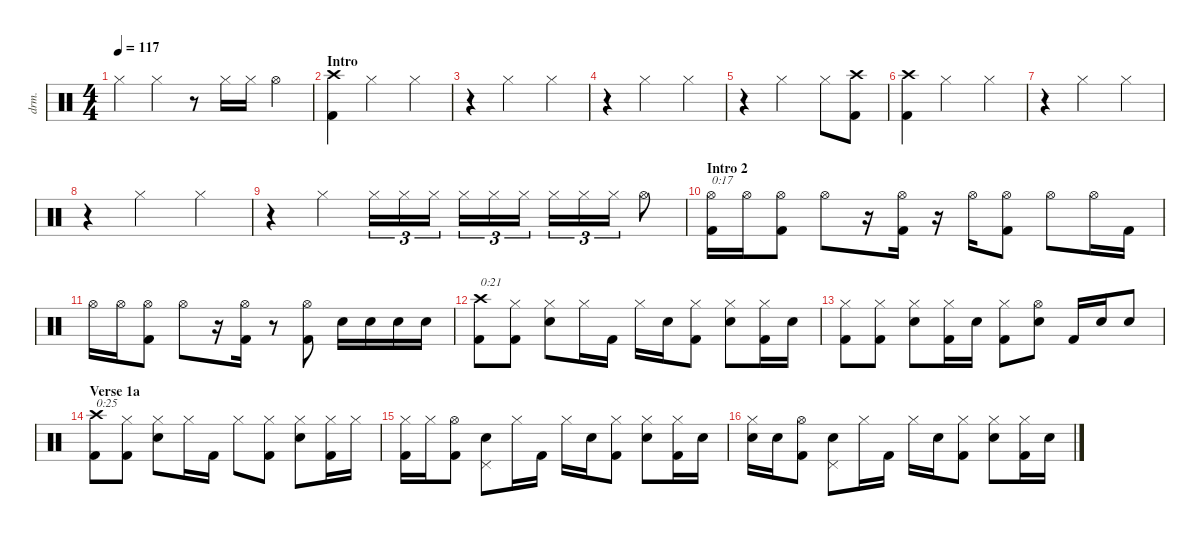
\defaultSystemsLayout 4
\hideDynamics
\bracketExtendMode nobrackets
\otherSystemsTrackNameOrientation horizontal
\track ("Drums" "drm.") {instrument percussion}
\staff {score}
\articulation defaults
\ts (4 4)
\beaming (8 2 2 2 2)
\tempo 117
\clef neutral
\ks c "Hi-Hat (closed)".4{dy f} "Hi-Hat (closed)".4
r.8 "Hi-Hat (closed)".16 "Hi-Hat (closed)".16 "Hi-Hat (open)".4 |
\section ("" "Intro")
("Crash high (hit)" "Kick (hit) 2").4 "Hi-Hat (closed)".2 "Hi-Hat (closed)".4 |
r.4 "Hi-Hat (closed)".2 "Hi-Hat (closed)".4 |
r.4 "Hi-Hat (closed)".2 "Hi-Hat (closed)".4 |
r.4 "Hi-Hat (closed)".2 "Hi-Hat (closed)".8 ("Crash high (hit)" "Kick (hit) 2").8 |
("Crash high (hit)" "Kick (hit) 2").4 "Hi-Hat (closed)".2 "Hi-Hat (closed)".4 |
r.4 "Hi-Hat (closed)".2 "Hi-Hat (closed)".4 |
r.4 "Hi-Hat (closed)".2 "Hi-Hat (closed)".4 |
r.4 "Hi-Hat (closed)".4 "Hi-Hat (closed)".16{tu (3 2)} "Hi-Hat (closed)".16{tu (3 2)} "Hi-Hat (closed)".16{tu (3 2)} "Hi-Hat (closed)".16{tu (3 2)} "Hi-Hat (closed)".16{tu (3 2)} "Hi-Hat (closed)".16{tu (3 2)} "Hi-Hat (closed)".16{tu (3 2)} "Hi-Hat (closed)".16{tu (3 2)} "Hi-Hat (closed)".16{tu (3 2)} "Hi-Hat (open)".8 |
\section ("" "Intro 2")
("Kick (hit) 2" "Hi-Hat (open)").16{txt "0:17"} "Hi-Hat (open)".16 ("Kick (hit) 2" "Hi-Hat (open)").8 "Hi-Hat (open)".8 r.16 ("Kick (hit) 2" "Hi-Hat (open)").16 r.16 "Hi-Hat (open)".16 ("Kick (hit) 2" "Hi-Hat (open)").8 "Hi-Hat (open)".8 "Hi-Hat (open)".16 "Kick (hit) 2".16 |
"Hi-Hat (open)".16 "Hi-Hat (open)".16 ("Kick (hit) 2" "Hi-Hat (open)").8 "Hi-Hat (open)".8 r.16 ("Kick (hit) 2" "Hi-Hat (open)").16 r.8 ("Kick (hit) 2" "Hi-Hat (open)").8 "Snare (hit) 2".16 "Snare (hit) 2".16 "Snare (hit) 2".16 "Snare (hit) 2".16 |
("Kick (hit) 2" "Crash high (hit)").8{txt "0:21"} ("Kick (hit) 2" "Hi-Hat (closed)").8 ("Snare (hit) 2" "Hi-Hat (closed)").8 "Hi-Hat (closed)".16 "Kick (hit) 2".16 "Hi-Hat (closed)".16 "Snare (hit) 2".16{dy mp} ("Kick (hit) 2" "Hi-Hat (closed)").8{dy f} ("Snare (hit) 2" "Hi-Hat (closed)").8 ("Kick (hit) 2" "Hi-Hat (closed)").16 "Snare (hit) 2".16{dy mp} |
("Kick (hit) 2" "Hi-Hat (closed)").8 ("Kick (hit) 2" "Hi-Hat (closed)").8{dy f} ("Snare (hit) 2" "Hi-Hat (closed)").8 ("Kick (hit) 2" "Hi-Hat (closed)").16 "Snare (hit) 2".16 ("Kick (hit) 2" "Hi-Hat (closed)").8 ("Snare (hit) 2" "Hi-Hat (open)").8 "Kick (hit) 2".16 "Snare (hit) 2".16 "Snare (hit) 2".8 |
\section ("" "Verse 1a")
("Kick (hit) 2" "Crash high (hit)").8{txt "0:25"} ("Kick (hit) 2" "Hi-Hat (closed)").8 ("Snare (hit) 2" "Hi-Hat (closed)").8 "Hi-Hat (closed)".16 "Kick (hit) 2".16 "Hi-Hat (closed)".8 ("Kick (hit) 2" "Hi-Hat (closed)").8 ("Snare (hit) 2" "Hi-Hat (closed)").8 ("Kick (hit) 2" "Hi-Hat (closed)").16 "Hi-Hat (closed)".16 |
("Kick (hit) 2" "Hi-Hat (closed)").16 "Hi-Hat (closed)".16 ("Kick (hit) 2" "Hi-Hat (open)").8 ("Snare (hit) 2" "Pedal Hi-Hat (hit)").8 "Hi-Hat (closed)".16 "Kick (hit) 2".16 "Hi-Hat (closed)".16 "Snare (hit) 2".16 ("Kick (hit) 2" "Hi-Hat (closed)").8 ("Snare (hit) 2" "Hi-Hat (closed)").8 ("Kick (hit) 2" "Hi-Hat (closed)").16 "Snare (hit) 2".16 |
("Snare (hit) 2" "Hi-Hat (closed)").16 "Snare (hit) 2".16 ("Kick (hit) 2" "Hi-Hat (open)").8 ("Snare (hit) 2" "Pedal Hi-Hat (hit)").8 "Hi-Hat (closed)".16 "Kick (hit) 2".16 "Hi-Hat (closed)".16 "Snare (hit) 2".16 ("Kick (hit) 2" "Hi-Hat (closed)").8 ("Snare (hit) 2" "Hi-Hat (closed)").8 ("Kick (hit) 2" "Hi-Hat (closed)").16 "Snare (hit) 2".16
